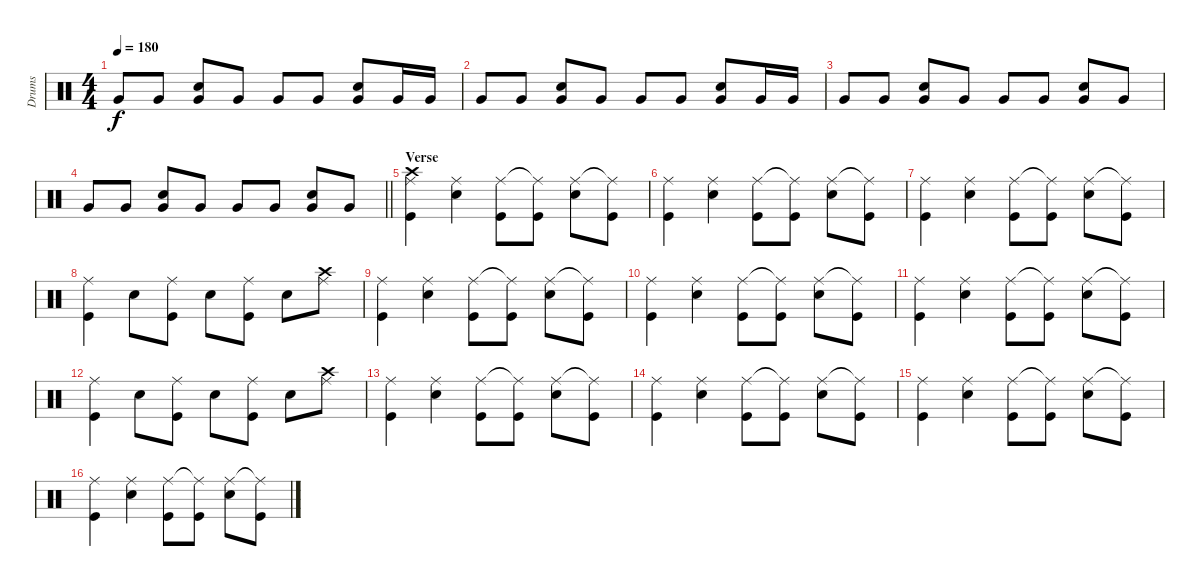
\track ("Drums" "Drums") {instrument percussion}
\staff {score}
\articulation defaults
\ts (4 4)
\tempo 180
\clef neutral
\ks c "Very Low Tom (hit)".8{dy f} "Very Low Tom (hit)".8
("Very Low Tom (hit)" "Snare (hit) 2").8 "Very Low Tom (hit)".8 "Very Low Tom (hit)".8 "Very Low Tom (hit)".8 ("Very Low Tom (hit)" "Snare (hit) 2").8 "Very Low Tom (hit)".16 "Very Low Tom (hit)".16 |
"Very Low Tom (hit)".8 "Very Low Tom (hit)".8 ("Very Low Tom (hit)" "Snare (hit) 2").8 "Very Low Tom (hit)".8 "Very Low Tom (hit)".8 "Very Low Tom (hit)".8 ("Very Low Tom (hit)" "Snare (hit) 2").8 "Very Low Tom (hit)".16 "Very Low Tom (hit)".16 |
"Very Low Tom (hit)".8 "Very Low Tom (hit)".8 ("Very Low Tom (hit)" "Snare (hit) 2").8 "Very Low Tom (hit)".8 "Very Low Tom (hit)".8 "Very Low Tom (hit)".8 ("Very Low Tom (hit)" "Snare (hit) 2").8 "Very Low Tom (hit)".8 |
\barLineRight lightlight "Very Low Tom (hit)".8 "Very Low Tom (hit)".8
("Very Low Tom (hit)" "Snare (hit) 2").8 "Very Low Tom (hit)".8 "Very Low Tom (hit)".8 "Very Low Tom (hit)".8 ("Very Low Tom (hit)" "Snare (hit) 2").8 "Very Low Tom (hit)".8 |
\section ("" "Verse")
("Kick (hit)" "Crash high (hit)" "Ride (middle)").4 ("Snare (hit) 2" "Ride (middle)").4 ("Kick (hit)" "Ride (middle)").8 ("Kick (hit)" "Ride (middle)"{t}).8 ("Snare (hit) 2" "Ride (middle)").8 ("Kick (hit)" "Ride (middle)"{t}).8 |
("Kick (hit)" "Ride (middle)").4 ("Snare (hit) 2" "Ride (middle)").4 ("Kick (hit)" "Ride (middle)").8 ("Kick (hit)" "Ride (middle)"{t}).8 ("Snare (hit) 2" "Ride (middle)").8 ("Kick (hit)" "Ride (middle)"{t}).8 |
("Kick (hit)" "Ride (middle)").4 ("Snare (hit) 2" "Ride (middle)").4 ("Kick (hit)" "Ride (middle)").8 ("Kick (hit)" "Ride (middle)"{t}).8 ("Snare (hit) 2" "Ride (middle)").8 ("Kick (hit)" "Ride (middle)"{t}).8 |
("Kick (hit)" "Ride (middle)").4 "Snare (hit) 2".8 ("Kick (hit)" "Ride (middle)").8 "Snare (hit) 2".8 ("Kick (hit)" "Ride (middle)").8 "Snare (hit) 2".8 ("Crash high (hit)" "Ride (middle)").8 |
("Kick (hit)" "Ride (middle)").4 ("Snare (hit) 2" "Ride (middle)").4 ("Kick (hit)" "Ride (middle)").8 ("Kick (hit)" "Ride (middle)"{t}).8 ("Snare (hit) 2" "Ride (middle)").8 ("Kick (hit)" "Ride (middle)"{t}).8 |
("Kick (hit)" "Ride (middle)").4 ("Snare (hit) 2" "Ride (middle)").4 ("Kick (hit)" "Ride (middle)").8 ("Kick (hit)" "Ride (middle)"{t}).8 ("Snare (hit) 2" "Ride (middle)").8 ("Kick (hit)" "Ride (middle)"{t}).8 |
("Kick (hit)" "Ride (middle)").4 ("Snare (hit) 2" "Ride (middle)").4 ("Kick (hit)" "Ride (middle)").8 ("Kick (hit)" "Ride (middle)"{t}).8 ("Snare (hit) 2" "Ride (middle)").8 ("Kick (hit)" "Ride (middle)"{t}).8 |
("Kick (hit)" "Ride (middle)").4 "Snare (hit) 2".8 ("Kick (hit)" "Ride (middle)").8 "Snare (hit) 2".8 ("Kick (hit)" "Ride (middle)").8 "Snare (hit) 2".8 ("Crash high (hit)" "Ride (middle)").8 |
("Kick (hit)" "Ride (middle)").4 ("Snare (hit) 2" "Ride (middle)").4 ("Kick (hit)" "Ride (middle)").8 ("Kick (hit)" "Ride (middle)"{t}).8 ("Snare (hit) 2" "Ride (middle)").8 ("Kick (hit)" "Ride (middle)"{t}).8 |
("Kick (hit)" "Ride (middle)").4 ("Snare (hit) 2" "Ride (middle)").4 ("Kick (hit)" "Ride (middle)").8 ("Kick (hit)" "Ride (middle)"{t}).8 ("Snare (hit) 2" "Ride (middle)").8 ("Kick (hit)" "Ride (middle)"{t}).8 |
("Kick (hit)" "Ride (middle)").4 ("Snare (hit) 2" "Ride (middle)").4 ("Kick (hit)" "Ride (middle)").8 ("Kick (hit)" "Ride (middle)"{t}).8 ("Snare (hit) 2" "Ride (middle)").8 ("Kick (hit)" "Ride (middle)"{t}).8 |
("Kick (hit)" "Ride (middle)").4 ("Snare (hit) 2" "Ride (middle)").4 ("Kick (hit)" "Ride (middle)").8 ("Kick (hit)" "Ride (middle)"{t}).8 ("Snare (hit) 2" "Ride (middle)").8 ("Kick (hit)" "Ride (middle)"{t}).8
